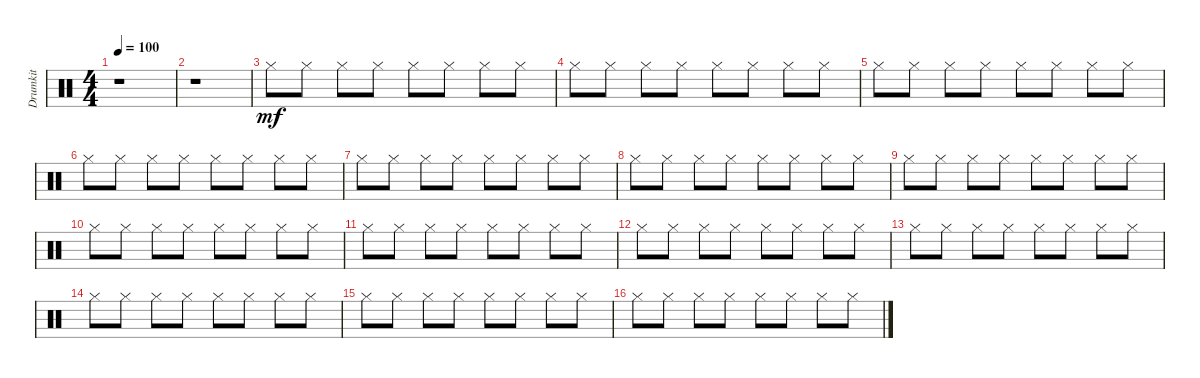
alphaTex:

\track ("Drumkit" "Drumkit") {instrument percussion}
\staff {score}
\articulation defaults
\ts (4 4)
\tempo 100
\clef neutral
\ks aminor
r.1{dy mf} |
r.1 |
"Hi-Hat (closed)".8 "Hi-Hat (closed)".8 "Hi-Hat (closed)".8 "Hi-Hat (closed)".8 "Hi-Hat (closed)".8 "Hi-Hat (closed)".8 "Hi-Hat (closed)".8 "Hi-Hat (closed)".8 |
"Hi-Hat (closed)".8 "Hi-Hat (closed)".8 "Hi-Hat (closed)".8 "Hi-Hat (closed)".8 "Hi-Hat (closed)".8 "Hi-Hat (closed)".8 "Hi-Hat (closed)".8 "Hi-Hat (closed)".8 |
"Hi-Hat (closed)".8 "Hi-Hat (closed)".8 "Hi-Hat (closed)".8 "Hi-Hat (closed)".8 "Hi-Hat (closed)".8 "Hi-Hat (closed)".8 "Hi-Hat (closed)".8 "Hi-Hat (closed)".8 |
"Hi-Hat (closed)".8 "Hi-Hat (closed)".8 "Hi-Hat (closed)".8 "Hi-Hat (closed)".8 "Hi-Hat (closed)".8 "Hi-Hat (closed)".8 "Hi-Hat (closed)".8 "Hi-Hat (closed)".8 |
"Hi-Hat (closed)".8 "Hi-Hat (closed)".8 "Hi-Hat (closed)".8 "Hi-Hat (closed)".8 "Hi-Hat (closed)".8 "Hi-Hat (closed)".8 "Hi-Hat (closed)".8 "Hi-Hat (closed)".8 |
"Hi-Hat (closed)".8 "Hi-Hat (closed)".8 "Hi-Hat (closed)".8 "Hi-Hat (closed)".8 "Hi-Hat (closed)".8 "Hi-Hat (closed)".8 "Hi-Hat (closed)".8 "Hi-Hat (closed)".8 |
"Hi-Hat (closed)".8 "Hi-Hat (closed)".8 "Hi-Hat (closed)".8 "Hi-Hat (closed)".8 "Hi-Hat (closed)".8 "Hi-Hat (closed)".8 "Hi-Hat (closed)".8 "Hi-Hat (closed)".8 |
"Hi-Hat (closed)".8 "Hi-Hat (closed)".8 "Hi-Hat (closed)".8 "Hi-Hat (closed)".8 "Hi-Hat (closed)".8 "Hi-Hat (closed)".8 "Hi-Hat (closed)".8 "Hi-Hat (closed)".8 |
"Hi-Hat (closed)".8 "Hi-Hat (closed)".8 "Hi-Hat (closed)".8 "Hi-Hat (closed)".8 "Hi-Hat (closed)".8 "Hi-Hat (closed)".8 "Hi-Hat (closed)".8 "Hi-Hat (closed)".8 |
"Hi-Hat (closed)".8 "Hi-Hat (closed)".8 "Hi-Hat (closed)".8 "Hi-Hat (closed)".8 "Hi-Hat (closed)".8 "Hi-Hat (closed)".8 "Hi-Hat (closed)".8 "Hi-Hat (closed)".8 |
"Hi-Hat (closed)".8 "Hi-Hat (closed)".8 "Hi-Hat (closed)".8 "Hi-Hat (closed)".8 "Hi-Hat (closed)".8 "Hi-Hat (closed)".8 "Hi-Hat (closed)".8 "Hi-Hat (closed)".8 |
"Hi-Hat (closed)".8 "Hi-Hat (closed)".8 "Hi-Hat (closed)".8 "Hi-Hat (closed)".8 "Hi-Hat (closed)".8 "Hi-Hat (closed)".8 "Hi-Hat (closed)".8 "Hi-Hat (closed)".8 |
"Hi-Hat (closed)".8 "Hi-Hat (closed)".8 "Hi-Hat (closed)".8 "Hi-Hat (closed)".8 "Hi-Hat (closed)".8 "Hi-Hat (closed)".8 "Hi-Hat (closed)".8 "Hi-Hat (closed)".8 |
"Hi-Hat (closed)".8 "Hi-Hat (closed)".8 "Hi-Hat (closed)".8 "Hi-Hat (closed)".8 "Hi-Hat (closed)".8 "Hi-Hat (closed)".8 "Hi-Hat (closed)".8 "Hi-Hat (closed)".8
